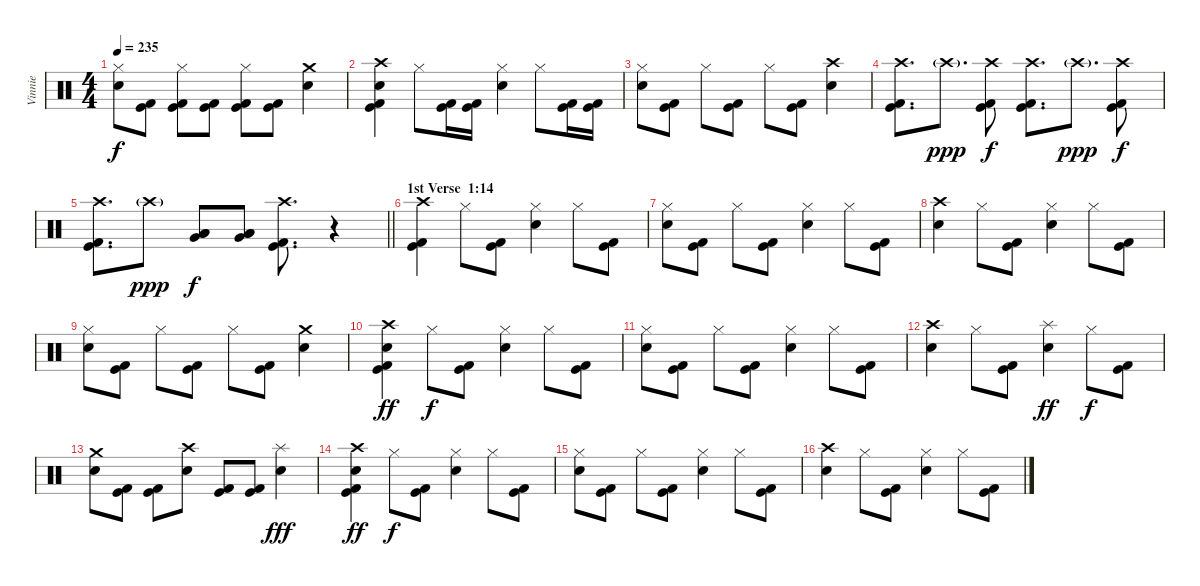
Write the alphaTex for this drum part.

\track ("Vinnie" "Vinnie") {instrument percussion}
\staff {score}
\articulation defaults
\ts (4 4)
\tempo 235
\clef neutral
\ks c
("Hi-Hat (closed)" "Electric Snare (hit)").8{dy f} ("Kick (hit)" "Kick (hit) 2").8 ("Hi-Hat (closed)" "Kick (hit)" "Kick (hit) 2").8 ("Kick (hit)" "Kick (hit) 2").8 ("Hi-Hat (closed)" "Kick (hit)" "Kick (hit) 2").8 ("Kick (hit)" "Kick (hit) 2").8 ("Crash medium (hit)" "Electric Snare (hit)").4 |
("Crash high (hit)" "Electric Snare (hit)" "Kick (hit)" "Kick (hit) 2").4{bd 60} "Hi-Hat (closed)".8 ("Kick (hit)" "Kick (hit) 2").16 ("Kick (hit)" "Kick (hit) 2").16 ("Hi-Hat (closed)" "Electric Snare (hit)").4 "Hi-Hat (closed)".8 ("Kick (hit)" "Kick (hit) 2").16 ("Kick (hit)" "Kick (hit) 2").16 |
("Hi-Hat (closed)" "Electric Snare (hit)").8 ("Kick (hit)" "Kick (hit) 2").8 "Hi-Hat (closed)".8 ("Kick (hit)" "Kick (hit) 2").8 "Hi-Hat (closed)".8 ("Kick (hit)" "Kick (hit) 2").8 ("Crash high (hit)" "Electric Snare (hit)").4 |
("Crash high (hit)" "Kick (hit)" "Kick (hit) 2").8{d} "Crash high (hit)"{g}.8{d dy ppp} ("Crash high (hit)" "Kick (hit)" "Kick (hit) 2").8{dy f} ("Crash high (hit)" "Kick (hit)" "Kick (hit) 2").8{d} "Crash high (hit)"{g}.8{d dy ppp} ("Crash high (hit)" "Kick (hit)" "Kick (hit) 2").8{dy f} |
\barLineRight lightlight
("Crash high (hit)" "Kick (hit)" "Kick (hit) 2").8{d} "Crash high (hit)"{g}.8{dy ppp} ("Low Floor Tom (hit)" "Very Low Tom (hit)" "Low Floor Tom (hit)").8{dy f} ("Low Floor Tom (hit)" "Very Low Tom (hit)" "Low Floor Tom (hit)").8 ("Crash high (hit)" "Kick (hit)" "Kick (hit) 2").8{d} r.4 |
\section ("" "1st Verse  1:14")
("Crash high (hit)" "Kick (hit)" "Kick (hit) 2").4 "Hi-Hat (closed)".8 ("Kick (hit)" "Kick (hit) 2").8 ("Hi-Hat (closed)" "Electric Snare (hit)").4 "Hi-Hat (closed)".8 ("Kick (hit)" "Kick (hit) 2").8 |
("Hi-Hat (closed)" "Electric Snare (hit)").8 ("Kick (hit)" "Kick (hit) 2").8 "Hi-Hat (closed)".8 ("Kick (hit)" "Kick (hit) 2").8 ("Hi-Hat (closed)" "Electric Snare (hit)").4 "Hi-Hat (closed)".8 ("Kick (hit)" "Kick (hit) 2").8 |
("Crash high (hit)" "Electric Snare (hit)").4 "Hi-Hat (closed)".8 ("Kick (hit)" "Kick (hit) 2").8 ("Hi-Hat (closed)" "Electric Snare (hit)").4 "Hi-Hat (closed)".8 ("Kick (hit)" "Kick (hit) 2").8 |
("Hi-Hat (closed)" "Electric Snare (hit)").8 ("Kick (hit)" "Kick (hit) 2").8 "Hi-Hat (closed)".8 ("Kick (hit)" "Kick (hit) 2").8 "Hi-Hat (closed)".8 ("Kick (hit)" "Kick (hit) 2").8 ("Crash medium (hit)" "Electric Snare (hit)").4 |
("Crash high (hit)" "Electric Snare (hit)" "Kick (hit)" "Kick (hit) 2").4{bd 60 dy ff} "Hi-Hat (closed)".8{dy f} ("Kick (hit)" "Kick (hit) 2").8 ("Hi-Hat (closed)" "Electric Snare (hit)").4 "Hi-Hat (closed)".8 ("Kick (hit)" "Kick (hit) 2").8 |
("Hi-Hat (closed)" "Electric Snare (hit)").8 ("Kick (hit)" "Kick (hit) 2").8 "Hi-Hat (closed)".8 ("Kick (hit)" "Kick (hit) 2").8 ("Hi-Hat (closed)" "Electric Snare (hit)").4 "Hi-Hat (closed)".8 ("Kick (hit)" "Kick (hit) 2").8 |
("Crash high (hit)" "Electric Snare (hit)").4 "Hi-Hat (closed)".8 ("Kick (hit)" "Kick (hit) 2").8 ("Splash (hit)" "Electric Snare (hit)").4{dy ff} "Hi-Hat (closed)".8{dy f} ("Kick (hit)" "Kick (hit) 2").8 |
("Crash medium (hit)" "Electric Snare (hit)").8 ("Kick (hit)" "Kick (hit) 2").8 ("Kick (hit)" "Kick (hit) 2").8 ("Crash high (hit)" "Electric Snare (hit)").8 ("Kick (hit)" "Kick (hit) 2").8 ("Kick (hit)" "Kick (hit) 2").8 ("Splash (hit)" "Electric Snare (hit)").4{dy fff} |
("Crash high (hit)" "Electric Snare (hit)" "Kick (hit)" "Kick (hit) 2").4{bd 60 dy ff} "Hi-Hat (closed)".8{dy f} ("Kick (hit)" "Kick (hit) 2").8 ("Hi-Hat (closed)" "Electric Snare (hit)").4 "Hi-Hat (closed)".8 ("Kick (hit)" "Kick (hit) 2").8 |
("Hi-Hat (closed)" "Electric Snare (hit)").8 ("Kick (hit)" "Kick (hit) 2").8 "Hi-Hat (closed)".8 ("Kick (hit)" "Kick (hit) 2").8 ("Hi-Hat (closed)" "Electric Snare (hit)").4 "Hi-Hat (closed)".8 ("Kick (hit)" "Kick (hit) 2").8 |
("Crash high (hit)" "Electric Snare (hit)").4 "Hi-Hat (closed)".8 ("Kick (hit)" "Kick (hit) 2").8 ("Hi-Hat (closed)" "Electric Snare (hit)").4 "Hi-Hat (closed)".8 ("Kick (hit)" "Kick (hit) 2").8
